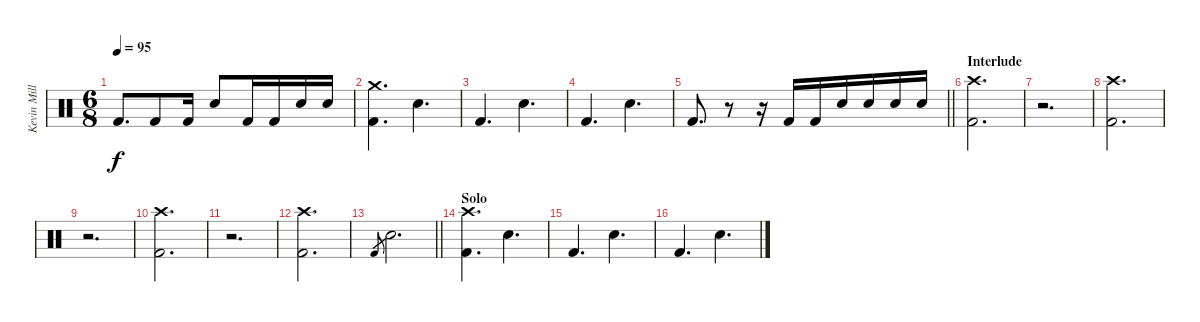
\track ("Kevin Miller (Drums)" "Kevin Mill") {instrument percussion}
\staff {score}
\articulation defaults
\ts (6 8)
\tempo 95
\clef neutral
\ks c "Kick (hit) 2".8{d dy f} "Kick (hit) 2".8 "Kick (hit) 2".16 "Electric Snare (hit)".8 "Kick (hit) 2".16 "Kick (hit) 2".16 "Electric Snare (hit)".16 "Electric Snare (hit)".16
|
("Crash medium (hit)" "Kick (hit) 2").4{d} "Electric Snare (hit)".4{d} |
"Kick (hit) 2".4{d} "Electric Snare (hit)".4{d} |
"Kick (hit) 2".4{d} "Electric Snare (hit)".4{d} |
\barLineRight lightlight "Kick (hit) 2".8{d}
r.8 r.16 "Kick (hit) 2".16 "Kick (hit) 2".16 "Electric Snare (hit)".16 "Electric Snare (hit)".16 "Electric Snare (hit)".16 "Electric Snare (hit)".16 |
\section ("" "Interlude")
("Crash high (hit)" "Kick (hit) 2").2{d} |
r.2{d} |
("Crash high (hit)" "Kick (hit) 2").2{d} |
r.2{d} |
("Crash high (hit)" "Kick (hit) 2").2{d} |
r.2{d} |
("Crash high (hit)" "Kick (hit) 2").2{d} |
\barLineRight lightlight "Kick (hit) 2".8{gr} "Electric Snare (hit)".2{d}
|
\section ("" "Solo")
("Crash high (hit)" "Kick (hit) 2").4{d} "Electric Snare (hit)".4{d} |
"Kick (hit) 2".4{d} "Electric Snare (hit)".4{d} |
"Kick (hit) 2".4{d} "Electric Snare (hit)".4{d}
